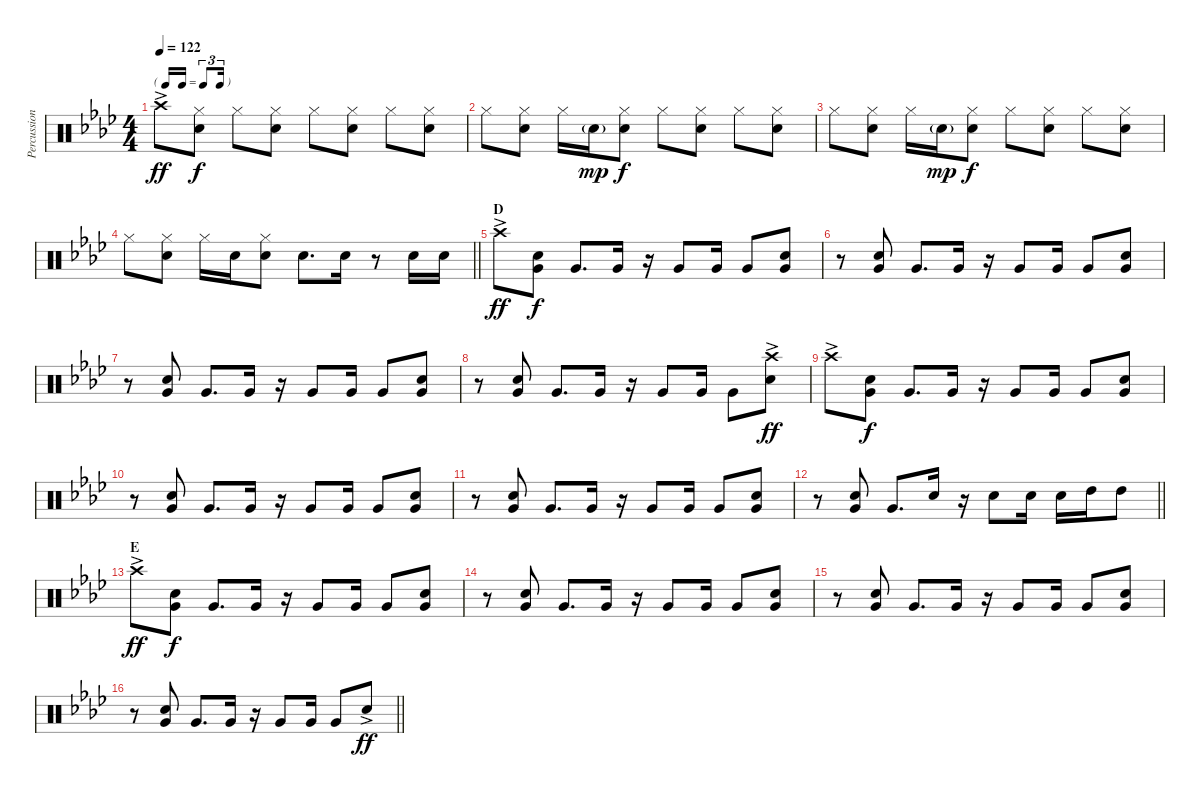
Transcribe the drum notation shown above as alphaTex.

\track ("Percussion Hand" "Percussion") {instrument percussion}
\staff {score}
\articulation defaults
\ts (4 4)
\tf triplet16th
\tempo 122
\clef neutral
\ks ab "Crash high (hit)"{ac}.8{dy ff}
("Hi-Hat (closed)" "Snare (hit) 2").8{dy f} "Hi-Hat (closed)".8 ("Hi-Hat (closed)" "Snare (hit) 2").8 "Hi-Hat (closed)".8 ("Hi-Hat (closed)" "Snare (hit) 2").8 "Hi-Hat (closed)".8 ("Snare (hit) 2" "Hi-Hat (closed)").8 |
"Hi-Hat (closed)".8 ("Hi-Hat (closed)" "Snare (hit) 2").8 "Hi-Hat (closed)".16 "Snare (hit) 2"{g}.16{dy mp} ("Hi-Hat (closed)" "Snare (hit) 2").8{dy f} "Hi-Hat (closed)".8 ("Hi-Hat (closed)" "Snare (hit) 2").8 "Hi-Hat (closed)".8 ("Hi-Hat (closed)" "Snare (hit) 2").8 |
"Hi-Hat (closed)".8 ("Hi-Hat (closed)" "Snare (hit) 2").8 "Hi-Hat (closed)".16 "Snare (hit) 2"{g}.16{dy mp} ("Hi-Hat (closed)" "Snare (hit) 2").8{dy f} "Hi-Hat (closed)".8 ("Hi-Hat (closed)" "Snare (hit) 2").8 "Hi-Hat (closed)".8 ("Hi-Hat (closed)" "Snare (hit) 2").8 |
\barLineRight lightlight "Hi-Hat (closed)".8
("Hi-Hat (closed)" "Snare (hit) 2").8 "Hi-Hat (closed)".16 "Snare (hit) 2".16 ("Hi-Hat (closed)" "Snare (hit) 2").8 "Snare (hit) 2".8{d} "Snare (hit) 2".16 r.8 "Snare (hit) 2".16 "Snare (hit) 2".16 |
\section ("" "D")
"Crash high (hit)"{ac}.8{dy ff} ("Snare (hit) 2" "Very Low Tom (hit)").8{dy f} "Very Low Tom (hit)".8{d} "Very Low Tom (hit)".16 r.16 "Very Low Tom (hit)".8 "Very Low Tom (hit)".16 "Very Low Tom (hit)".8 ("Very Low Tom (hit)" "Snare (hit) 2").8 |
r.8 ("Snare (hit) 2" "Very Low Tom (hit)").8 "Very Low Tom (hit)".8{d} "Very Low Tom (hit)".16 r.16 "Very Low Tom (hit)".8 "Very Low Tom (hit)".16 "Very Low Tom (hit)".8 ("Snare (hit) 2" "Very Low Tom (hit)").8 |
r.8 ("Snare (hit) 2" "Very Low Tom (hit)").8 "Very Low Tom (hit)".8{d} "Very Low Tom (hit)".16 r.16 "Very Low Tom (hit)".8 "Very Low Tom (hit)".16 "Very Low Tom (hit)".8 ("Snare (hit) 2" "Very Low Tom (hit)").8 |
r.8 ("Very Low Tom (hit)" "Snare (hit) 2").8 "Very Low Tom (hit)".8{d} "Very Low Tom (hit)".16 r.16 "Very Low Tom (hit)".8 "Very Low Tom (hit)".16 "Very Low Tom (hit)".8 ("Snare (hit) 2" "Crash high (hit)"{ac}).8{dy ff} |
"Crash high (hit)"{ac}.8 ("Snare (hit) 2" "Very Low Tom (hit)").8{dy f} "Very Low Tom (hit)".8{d} "Very Low Tom (hit)".16 r.16 "Very Low Tom (hit)".8 "Very Low Tom (hit)".16 "Very Low Tom (hit)".8 ("Snare (hit) 2" "Very Low Tom (hit)").8 |
r.8 ("Snare (hit) 2" "Very Low Tom (hit)").8 "Very Low Tom (hit)".8{d} "Very Low Tom (hit)".16 r.16 "Very Low Tom (hit)".8 "Very Low Tom (hit)".16 "Very Low Tom (hit)".8 ("Snare (hit) 2" "Very Low Tom (hit)").8 |
r.8 ("Snare (hit) 2" "Very Low Tom (hit)").8 "Very Low Tom (hit)".8{d} "Very Low Tom (hit)".16 r.16 "Very Low Tom (hit)".8 "Very Low Tom (hit)".16 "Very Low Tom (hit)".8 ("Snare (hit) 2" "Very Low Tom (hit)").8 |
\barLineRight lightlight
r.8 ("Snare (hit) 2" "Very Low Tom (hit)").8 "Very Low Tom (hit)".8{d} "Snare (hit) 2".16 r.16 "Snare (hit) 2".8 "Snare (hit) 2".16 "Snare (hit) 2".16 "High Tom (hit)".16 "High Tom (hit)".8 |
\section ("" "E")
"Crash high (hit)"{ac}.8{dy ff} ("Snare (hit) 2" "Very Low Tom (hit)").8{dy f} "Very Low Tom (hit)".8{d} "Very Low Tom (hit)".16 r.16 "Very Low Tom (hit)".8 "Very Low Tom (hit)".16 "Very Low Tom (hit)".8 ("Snare (hit) 2" "Very Low Tom (hit)").8 |
r.8 ("Snare (hit) 2" "Very Low Tom (hit)").8 "Very Low Tom (hit)".8{d} "Very Low Tom (hit)".16 r.16 "Very Low Tom (hit)".8 "Very Low Tom (hit)".16 "Very Low Tom (hit)".8 ("Snare (hit) 2" "Very Low Tom (hit)").8 |
r.8 ("Snare (hit) 2" "Very Low Tom (hit)").8 "Very Low Tom (hit)".8{d} "Very Low Tom (hit)".16 r.16 "Very Low Tom (hit)".8 "Very Low Tom (hit)".16 "Very Low Tom (hit)".8 ("Snare (hit) 2" "Very Low Tom (hit)").8 |
\barLineRight lightlight
r.8 ("Snare (hit) 2" "Very Low Tom (hit)").8 "Very Low Tom (hit)".8{d} "Very Low Tom (hit)".16 r.16 "Very Low Tom (hit)".8 "Very Low Tom (hit)".16 "Very Low Tom (hit)".8 "Snare (hit) 2"{ac}.8{dy ff}
